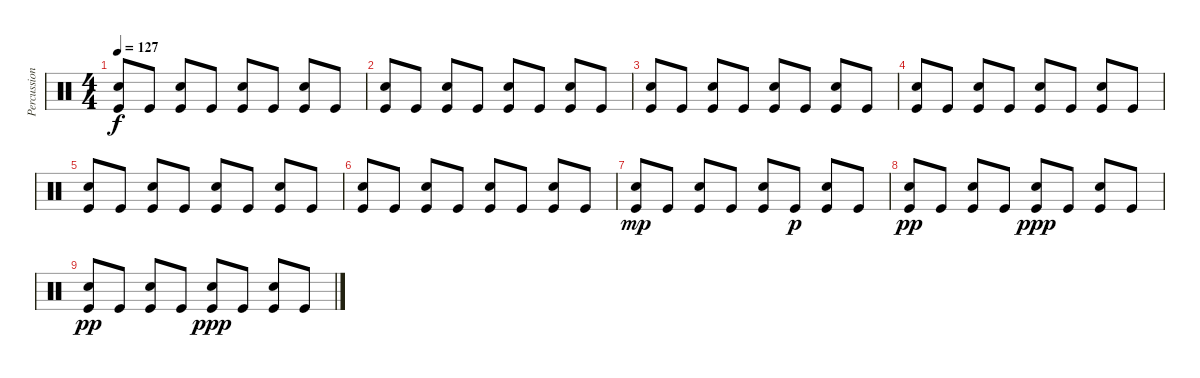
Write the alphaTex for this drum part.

\track ("Percussion" "Percussion") {instrument percussion}
\staff {score}
\articulation defaults
\ts (4 4)
\tempo 127
\clef neutral
\ks c
("Snare (hit) 2" "Kick (hit)").8{dy f} "Kick (hit)".8 ("Snare (hit) 2" "Kick (hit)").8 "Kick (hit)".8 ("Snare (hit) 2" "Kick (hit)").8 "Kick (hit)".8 ("Snare (hit) 2" "Kick (hit)").8 "Kick (hit)".8 |
("Snare (hit) 2" "Kick (hit)").8 "Kick (hit)".8 ("Snare (hit) 2" "Kick (hit)").8 "Kick (hit)".8 ("Snare (hit) 2" "Kick (hit)").8 "Kick (hit)".8 ("Snare (hit) 2" "Kick (hit)").8 "Kick (hit)".8 |
("Snare (hit) 2" "Kick (hit)").8 "Kick (hit)".8 ("Snare (hit) 2" "Kick (hit)").8 "Kick (hit)".8 ("Snare (hit) 2" "Kick (hit)").8 "Kick (hit)".8 ("Snare (hit) 2" "Kick (hit)").8 "Kick (hit)".8 |
("Snare (hit) 2" "Kick (hit)").8 "Kick (hit)".8 ("Snare (hit) 2" "Kick (hit)").8 "Kick (hit)".8 ("Snare (hit) 2" "Kick (hit)").8 "Kick (hit)".8 ("Snare (hit) 2" "Kick (hit)").8 "Kick (hit)".8 |
("Snare (hit) 2" "Kick (hit)").8 "Kick (hit)".8 ("Snare (hit) 2" "Kick (hit)").8 "Kick (hit)".8 ("Snare (hit) 2" "Kick (hit)").8 "Kick (hit)".8 ("Snare (hit) 2" "Kick (hit)").8 "Kick (hit)".8 |
("Snare (hit) 2" "Kick (hit)").8 "Kick (hit)".8 ("Snare (hit) 2" "Kick (hit)").8 "Kick (hit)".8 ("Snare (hit) 2" "Kick (hit)").8 "Kick (hit)".8 ("Snare (hit) 2" "Kick (hit)").8 "Kick (hit)".8 |
("Snare (hit) 2" "Kick (hit)").8{dy mp} "Kick (hit)".8 ("Snare (hit) 2" "Kick (hit)").8 "Kick (hit)".8 ("Snare (hit) 2" "Kick (hit)").8 "Kick (hit)".8{dy p} ("Snare (hit) 2" "Kick (hit)").8 "Kick (hit)".8 |
("Snare (hit) 2" "Kick (hit)").8{dy pp volume 5} "Kick (hit)".8 ("Snare (hit) 2" "Kick (hit)").8 "Kick (hit)".8 ("Snare (hit) 2" "Kick (hit)").8{dy ppp} "Kick (hit)".8 ("Snare (hit) 2" "Kick (hit)").8 "Kick (hit)".8 |
("Snare (hit) 2" "Kick (hit)").8{dy pp} "Kick (hit)".8 ("Snare (hit) 2" "Kick (hit)").8 "Kick (hit)".8 ("Snare (hit) 2" "Kick (hit)").8{dy ppp} "Kick (hit)".8 ("Snare (hit) 2" "Kick (hit)").8 "Kick (hit)".8
